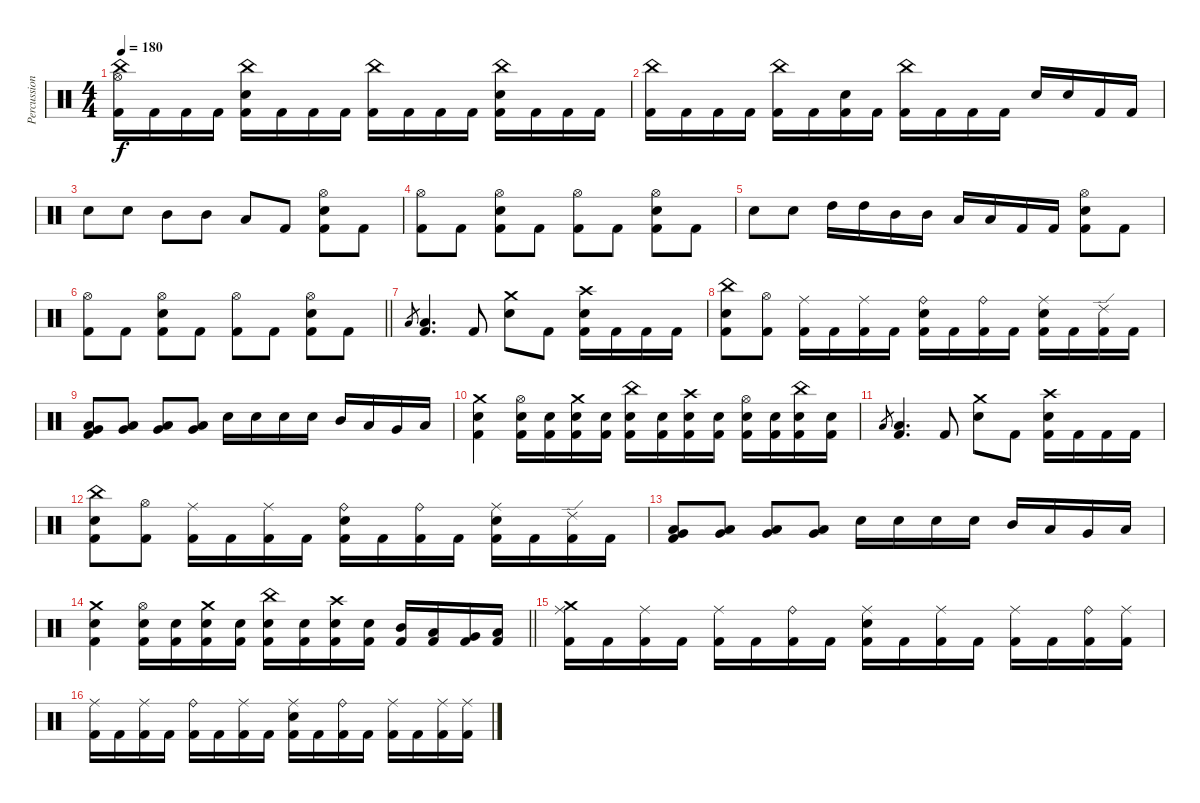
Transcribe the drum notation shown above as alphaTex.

\track ("Percussions" "Percussion") {instrument percussion}
\staff {score}
\articulation defaults
\ts (4 4)
\tempo 180
\clef neutral
\ks c
("China (hit)" "Hi-Hat (open)" "Kick (hit) 2").16{dy f} "Kick (hit) 2".16 "Kick (hit) 2".16 "Kick (hit) 2".16 ("China (hit)" "Electric Snare (hit)" "Kick (hit) 2").16 "Kick (hit) 2".16 "Kick (hit) 2".16 "Kick (hit) 2".16 ("China (hit)" "Kick (hit) 2").16 "Kick (hit) 2".16 "Kick (hit) 2".16 "Kick (hit) 2".16 ("China (hit)" "Electric Snare (hit)" "Kick (hit) 2").16 "Kick (hit) 2".16 "Kick (hit) 2".16 "Kick (hit) 2".16 |
("China (hit)" "Kick (hit) 2").16 "Kick (hit) 2".16 "Kick (hit) 2".16 "Kick (hit) 2".16 ("China (hit)" "Kick (hit) 2").16 "Kick (hit) 2".16 ("Electric Snare (hit)" "Kick (hit) 2").16 "Kick (hit) 2".16 ("China (hit)" "Kick (hit) 2").16 "Kick (hit) 2".16 "Kick (hit) 2".16 "Kick (hit) 2".16 "Electric Snare (hit)".16 "Electric Snare (hit)".16 "Kick (hit) 2".16 "Kick (hit) 2".16 |
"Electric Snare (hit)".8 "Electric Snare (hit)".8 "Mid Tom (hit)".8 "Mid Tom (hit)".8 "Low Tom (hit)".8 "Kick (hit) 2".8 ("Hi-Hat (open)" "Electric Snare (hit)" "Kick (hit) 2").8 "Kick (hit) 2".8 |
("Hi-Hat (open)" "Kick (hit) 2").8 "Kick (hit) 2".8 ("Hi-Hat (open)" "Electric Snare (hit)" "Kick (hit) 2").8 "Kick (hit) 2".8 ("Hi-Hat (open)" "Kick (hit) 2").8 "Kick (hit) 2".8 ("Hi-Hat (open)" "Electric Snare (hit)" "Kick (hit) 2").8 "Kick (hit) 2".8 |
"Electric Snare (hit)".8 "Electric Snare (hit)".8 "High Tom (hit)".16 "High Tom (hit)".16 "Mid Tom (hit)".16 "Mid Tom (hit)".16 "Low Tom (hit)".16 "Low Tom (hit)".16 "Kick (hit) 2".16 "Kick (hit) 2".16 ("Hi-Hat (open)" "Electric Snare (hit)" "Kick (hit) 2").8 "Kick (hit) 2".8 |
\barLineRight lightlight
("Hi-Hat (open)" "Kick (hit) 2").8 "Kick (hit) 2".8 ("Hi-Hat (open)" "Electric Snare (hit)" "Kick (hit) 2").8 "Kick (hit) 2".8 ("Hi-Hat (open)" "Kick (hit) 2").8 "Kick (hit) 2".8 ("Hi-Hat (open)" "Electric Snare (hit)" "Kick (hit) 2").8 "Kick (hit) 2".8 |
"Low Tom (hit)".8{gr} ("Low Tom (hit)" "Kick (hit) 2").4{d} "Kick (hit) 2".8 ("Crash medium (hit)" "Electric Snare (hit)").8 "Kick (hit) 2".8 ("Crash high (hit)" "Electric Snare (hit)" "Kick (hit) 2").16 "Kick (hit) 2".16 "Kick (hit) 2".16 "Kick (hit) 2".16 |
("China (hit)" "Electric Snare (hit)" "Kick (hit) 2").8 ("Hi-Hat (open)" "Kick (hit) 2").8 ("Ride (middle)" "Kick (hit) 2").16 "Kick (hit) 2".16 ("Ride (middle)" "Kick (hit) 2").16 "Kick (hit) 2".16 ("Ride (bell)" "Electric Snare (hit)" "Kick (hit) 2").16 "Kick (hit) 2".16 ("Ride (bell)" "Kick (hit) 2").16 "Kick (hit) 2".16 ("Ride (middle)" "Electric Snare (hit)" "Kick (hit) 2").16 "Kick (hit) 2".16 ("Ride (edge) 2" "Kick (hit) 2").16 "Kick (hit) 2".16 |
("Low Tom (hit)" "Very Low Tom (hit)" "Kick (hit) 2").8 ("Low Tom (hit)" "Very Low Tom (hit)").8 ("Low Tom (hit)" "Very Low Tom (hit)").8 ("Low Tom (hit)" "Very Low Tom (hit)").8 "Electric Snare (hit)".16 "Electric Snare (hit)".16 "Electric Snare (hit)".16 "Electric Snare (hit)".16 "Mid Tom (hit)".16 "Low Tom (hit)".16 "Very Low Tom (hit)".16 "Low Floor Tom (hit)".16 |
("Crash medium (hit)" "Electric Snare (hit)" "Kick (hit) 2").4 ("Hi-Hat (open)" "Electric Snare (hit)" "Kick (hit) 2").16 ("Electric Snare (hit)" "Kick (hit) 2").16 ("Crash medium (hit)" "Electric Snare (hit)" "Kick (hit) 2").16 ("Electric Snare (hit)" "Kick (hit) 2").16 ("China (hit)" "Electric Snare (hit)" "Kick (hit) 2").16 ("Electric Snare (hit)" "Kick (hit) 2").16 ("Crash high (hit)" "Electric Snare (hit)" "Kick (hit) 2").16 ("Electric Snare (hit)" "Kick (hit) 2").16 ("Hi-Hat (open)" "Electric Snare (hit)" "Kick (hit) 2").16 ("Electric Snare (hit)" "Kick (hit) 2").16 ("China (hit)" "Electric Snare (hit)" "Kick (hit) 2").16 ("Electric Snare (hit)" "Kick (hit) 2").16 |
"Low Tom (hit)".8{gr} ("Low Tom (hit)" "Kick (hit) 2").4{d} "Kick (hit) 2".8 ("Crash medium (hit)" "Electric Snare (hit)").8 "Kick (hit) 2".8 ("Crash high (hit)" "Electric Snare (hit)" "Kick (hit) 2").16 "Kick (hit) 2".16 "Kick (hit) 2".16 "Kick (hit) 2".16 |
("China (hit)" "Electric Snare (hit)" "Kick (hit) 2").8 ("Hi-Hat (open)" "Kick (hit) 2").8 ("Ride (middle)" "Kick (hit) 2").16 "Kick (hit) 2".16 ("Ride (middle)" "Kick (hit) 2").16 "Kick (hit) 2".16 ("Ride (bell)" "Electric Snare (hit)" "Kick (hit) 2").16 "Kick (hit) 2".16 ("Ride (bell)" "Kick (hit) 2").16 "Kick (hit) 2".16 ("Ride (middle)" "Electric Snare (hit)" "Kick (hit) 2").16 "Kick (hit) 2".16 ("Ride (edge) 2" "Kick (hit) 2").16 "Kick (hit) 2".16 |
("Low Tom (hit)" "Very Low Tom (hit)" "Kick (hit) 2").8 ("Low Tom (hit)" "Very Low Tom (hit)").8 ("Low Tom (hit)" "Very Low Tom (hit)").8 ("Low Tom (hit)" "Very Low Tom (hit)").8 "Electric Snare (hit)".16 "Electric Snare (hit)".16 "Electric Snare (hit)".16 "Electric Snare (hit)".16 "Mid Tom (hit)".16 "Low Tom (hit)".16 "Very Low Tom (hit)".16 "Low Floor Tom (hit)".16 |
\barLineRight lightlight
("Crash medium (hit)" "Electric Snare (hit)" "Kick (hit) 2").4 ("Hi-Hat (open)" "Electric Snare (hit)" "Kick (hit) 2").16 ("Electric Snare (hit)" "Kick (hit) 2").16 ("Crash medium (hit)" "Electric Snare (hit)" "Kick (hit) 2").16 ("Electric Snare (hit)" "Kick (hit) 2").16 ("China (hit)" "Electric Snare (hit)" "Kick (hit) 2").16 ("Electric Snare (hit)" "Kick (hit) 2").16 ("Crash high (hit)" "Electric Snare (hit)" "Kick (hit) 2").16 ("Electric Snare (hit)" "Kick (hit) 2").16 ("Mid Tom (hit)" "Kick (hit) 2").16 ("Low Tom (hit)" "Kick (hit) 2").16 ("Very Low Tom (hit)" "Kick (hit) 2").16 ("Low Floor Tom (hit)" "Kick (hit) 2").16 |
("Ride (middle)" "Crash medium (hit)" "Kick (hit) 2").16 "Kick (hit) 2".16 ("Ride (middle)" "Kick (hit) 2").16 "Kick (hit) 2".16 ("Ride (middle)" "Kick (hit) 2").16 "Kick (hit) 2".16 ("Ride (bell)" "Kick (hit) 2").16 "Kick (hit) 2".16 ("Ride (middle)" "Electric Snare (hit)" "Kick (hit) 2").16 "Kick (hit) 2".16 ("Ride (middle)" "Kick (hit) 2").16 "Kick (hit) 2".16 ("Ride (middle)" "Kick (hit) 2").16 "Kick (hit) 2".16 ("Ride (bell)" "Kick (hit) 2").16 ("Ride (middle)" "Kick (hit) 2").16 |
("Ride (middle)" "Kick (hit) 2").16 "Kick (hit) 2".16 ("Ride (middle)" "Kick (hit) 2").16 "Kick (hit) 2".16 ("Ride (bell)" "Kick (hit) 2").16 "Kick (hit) 2".16 ("Ride (middle)" "Kick (hit) 2").16 "Kick (hit) 2".16 ("Ride (middle)" "Electric Snare (hit)" "Kick (hit) 2").16 "Kick (hit) 2".16 ("Ride (bell)" "Kick (hit) 2").16 "Kick (hit) 2".16 ("Ride (middle)" "Kick (hit) 2").16 "Kick (hit) 2".16 ("Ride (middle)" "Kick (hit) 2").16 ("Ride (middle)" "Kick (hit) 2").16
